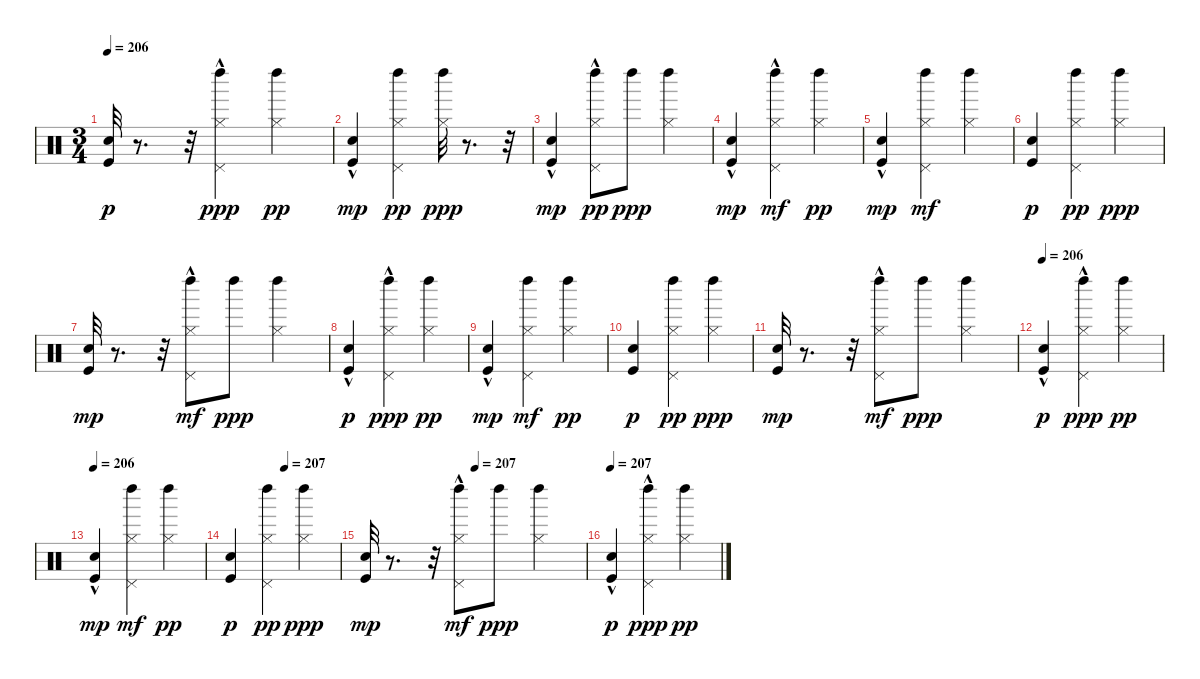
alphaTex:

\track "" {instrument percussion}
\staff {score}
\articulation defaults
\ts (3 4)
\tempo 206
\clef neutral
\ks c
("Snare (hit)" "Kick (hit)").32{dy p} r.8{d} r.32 ("Hi-Hat (closed)" "Pedal Hi-Hat (hit)"{hac} "Left Maraca (hit)").4{dy ppp} ("Hi-Hat (closed)" "Left Maraca (hit)").4{dy pp} |
("Kick (hit)"{hac} "Snare (hit)"{hac}).4{dy mp} ("Pedal Hi-Hat (hit)" "Hi-Hat (closed)" "Left Maraca (hit)").4{dy pp} ("Hi-Hat (closed)" "Left Maraca (hit)").32{dy ppp} r.8{d} r.32 |
("Kick (hit)" "Snare (hit)"{hac}).4{dy mp} ("Pedal Hi-Hat (hit)"{hac} "Hi-Hat (closed)" "Left Maraca (hit)").8{dy pp} "Left Maraca (hit)".8{dy ppp} ("Hi-Hat (closed)" "Left Maraca (hit)").4 |
("Kick (hit)" "Snare (hit)"{hac}).4{dy mp} ("Pedal Hi-Hat (hit)"{hac} "Left Maraca (hit)" "Hi-Hat (closed)").4{dy mf} ("Hi-Hat (closed)" "Left Maraca (hit)").4{dy pp} |
("Kick (hit)" "Snare (hit)"{hac}).4{dy mp} ("Pedal Hi-Hat (hit)" "Left Maraca (hit)" "Hi-Hat (closed)").4{dy mf} ("Left Maraca (hit)" "Hi-Hat (closed)").4 |
("Snare (hit)" "Kick (hit)").4{dy p} ("Hi-Hat (closed)" "Pedal Hi-Hat (hit)" "Left Maraca (hit)").4{dy pp} ("Hi-Hat (closed)" "Left Maraca (hit)").4{dy ppp} |
("Kick (hit)" "Snare (hit)").32{dy mp} r.8{d} r.32 ("Left Maraca (hit)" "Pedal Hi-Hat (hit)"{hac} "Hi-Hat (closed)").8{dy mf} "Left Maraca (hit)".8{dy ppp} ("Hi-Hat (closed)" "Left Maraca (hit)").4 |
("Snare (hit)"{hac} "Kick (hit)").4{dy p} ("Pedal Hi-Hat (hit)"{hac} "Hi-Hat (closed)" "Left Maraca (hit)").4{dy ppp} ("Hi-Hat (closed)" "Left Maraca (hit)").4{dy pp} |
("Kick (hit)" "Snare (hit)"{hac}).4{dy mp} ("Pedal Hi-Hat (hit)" "Left Maraca (hit)" "Hi-Hat (closed)").4{dy mf} ("Hi-Hat (closed)" "Left Maraca (hit)").4{dy pp} |
("Snare (hit)" "Kick (hit)").4{dy p} ("Hi-Hat (closed)" "Pedal Hi-Hat (hit)" "Left Maraca (hit)").4{dy pp} ("Hi-Hat (closed)" "Left Maraca (hit)").4{dy ppp} |
("Kick (hit)" "Snare (hit)").32{dy mp} r.8{d} r.32 ("Left Maraca (hit)" "Pedal Hi-Hat (hit)"{hac} "Hi-Hat (closed)").8{dy mf} "Left Maraca (hit)".8{dy ppp} ("Hi-Hat (closed)" "Left Maraca (hit)").4 |
\tempo 206
("Snare (hit)"{hac} "Kick (hit)").4{dy p} ("Pedal Hi-Hat (hit)"{hac} "Hi-Hat (closed)" "Left Maraca (hit)").4{dy ppp} ("Hi-Hat (closed)" "Left Maraca (hit)").4{dy pp} |
\tempo 206
("Kick (hit)" "Snare (hit)"{hac}).4{dy mp} ("Pedal Hi-Hat (hit)" "Left Maraca (hit)" "Hi-Hat (closed)").4{dy mf} ("Hi-Hat (closed)" "Left Maraca (hit)").4{dy pp} |
\tempo (207 0.5)
("Snare (hit)" "Kick (hit)").4{dy p} ("Hi-Hat (closed)" "Pedal Hi-Hat (hit)" "Left Maraca (hit)").4{dy pp} ("Hi-Hat (closed)" "Left Maraca (hit)").4{dy ppp} |
\tempo (207 0.5)
("Kick (hit)" "Snare (hit)").32{dy mp} r.8{d} r.32 ("Left Maraca (hit)" "Pedal Hi-Hat (hit)"{hac} "Hi-Hat (closed)").8{dy mf} "Left Maraca (hit)".8{dy ppp} ("Hi-Hat (closed)" "Left Maraca (hit)").4 |
\tempo 207
("Snare (hit)"{hac} "Kick (hit)").4{dy p} ("Pedal Hi-Hat (hit)"{hac} "Hi-Hat (closed)" "Left Maraca (hit)").4{dy ppp} ("Hi-Hat (closed)" "Left Maraca (hit)").4{dy pp}
